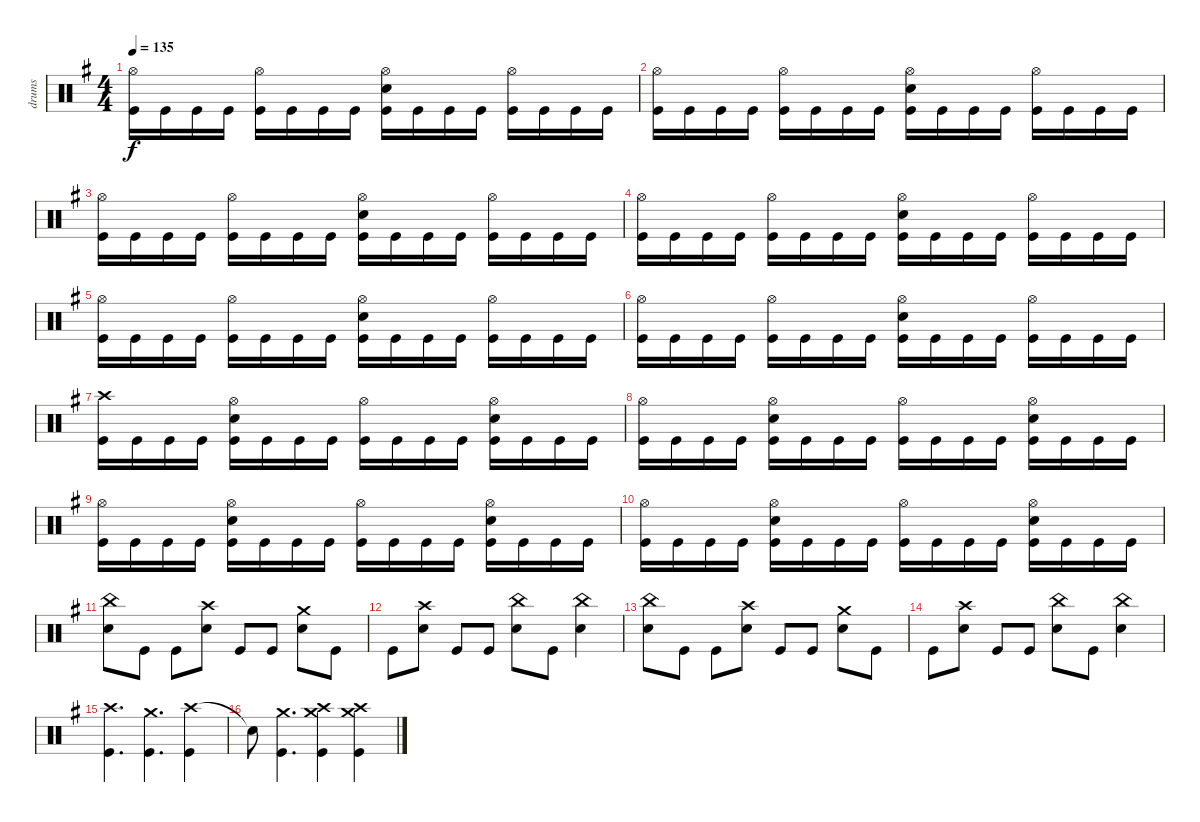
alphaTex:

\track ("drums" "drums") {instrument percussion}
\staff {score}
\articulation defaults
\ts (4 4)
\tempo 135
\clef neutral
\ks eminor
("Hi-Hat (open)" "Kick (hit)").16{dy f} "Kick (hit)".16 "Kick (hit)".16 "Kick (hit)".16 ("Hi-Hat (open)" "Kick (hit)").16 "Kick (hit)".16 "Kick (hit)".16 "Kick (hit)".16 ("Hi-Hat (open)" "Snare (hit) 2" "Kick (hit)").16 "Kick (hit)".16 "Kick (hit)".16 "Kick (hit)".16 ("Hi-Hat (open)" "Kick (hit)").16 "Kick (hit)".16 "Kick (hit)".16 "Kick (hit)".16 |
("Hi-Hat (open)" "Kick (hit)").16 "Kick (hit)".16 "Kick (hit)".16 "Kick (hit)".16 ("Hi-Hat (open)" "Kick (hit)").16 "Kick (hit)".16 "Kick (hit)".16 "Kick (hit)".16 ("Hi-Hat (open)" "Snare (hit) 2" "Kick (hit)").16 "Kick (hit)".16 "Kick (hit)".16 "Kick (hit)".16 ("Hi-Hat (open)" "Kick (hit)").16 "Kick (hit)".16 "Kick (hit)".16 "Kick (hit)".16 |
("Hi-Hat (open)" "Kick (hit)").16 "Kick (hit)".16 "Kick (hit)".16 "Kick (hit)".16 ("Hi-Hat (open)" "Kick (hit)").16 "Kick (hit)".16 "Kick (hit)".16 "Kick (hit)".16 ("Hi-Hat (open)" "Snare (hit) 2" "Kick (hit)").16 "Kick (hit)".16 "Kick (hit)".16 "Kick (hit)".16 ("Hi-Hat (open)" "Kick (hit)").16 "Kick (hit)".16 "Kick (hit)".16 "Kick (hit)".16 |
("Hi-Hat (open)" "Kick (hit)").16 "Kick (hit)".16 "Kick (hit)".16 "Kick (hit)".16 ("Hi-Hat (open)" "Kick (hit)").16 "Kick (hit)".16 "Kick (hit)".16 "Kick (hit)".16 ("Hi-Hat (open)" "Snare (hit) 2" "Kick (hit)").16 "Kick (hit)".16 "Kick (hit)".16 "Kick (hit)".16 ("Hi-Hat (open)" "Kick (hit)").16 "Kick (hit)".16 "Kick (hit)".16 "Kick (hit)".16 |
("Hi-Hat (open)" "Kick (hit)").16 "Kick (hit)".16 "Kick (hit)".16 "Kick (hit)".16 ("Hi-Hat (open)" "Kick (hit)").16 "Kick (hit)".16 "Kick (hit)".16 "Kick (hit)".16 ("Hi-Hat (open)" "Snare (hit) 2" "Kick (hit)").16 "Kick (hit)".16 "Kick (hit)".16 "Kick (hit)".16 ("Hi-Hat (open)" "Kick (hit)").16 "Kick (hit)".16 "Kick (hit)".16 "Kick (hit)".16 |
("Hi-Hat (open)" "Kick (hit)").16 "Kick (hit)".16 "Kick (hit)".16 "Kick (hit)".16 ("Hi-Hat (open)" "Kick (hit)").16 "Kick (hit)".16 "Kick (hit)".16 "Kick (hit)".16 ("Hi-Hat (open)" "Snare (hit) 2" "Kick (hit)").16 "Kick (hit)".16 "Kick (hit)".16 "Kick (hit)".16 ("Hi-Hat (open)" "Kick (hit)").16 "Kick (hit)".16 "Kick (hit)".16 "Kick (hit)".16 |
("Crash high (hit)" "Kick (hit)").16 "Kick (hit)".16 "Kick (hit)".16 "Kick (hit)".16 ("Hi-Hat (open)" "Snare (hit) 2" "Kick (hit)").16 "Kick (hit)".16 "Kick (hit)".16 "Kick (hit)".16 ("Hi-Hat (open)" "Kick (hit)").16 "Kick (hit)".16 "Kick (hit)".16 "Kick (hit)".16 ("Hi-Hat (open)" "Snare (hit) 2" "Kick (hit)").16 "Kick (hit)".16 "Kick (hit)".16 "Kick (hit)".16 |
("Hi-Hat (open)" "Kick (hit)").16 "Kick (hit)".16 "Kick (hit)".16 "Kick (hit)".16 ("Hi-Hat (open)" "Snare (hit) 2" "Kick (hit)").16 "Kick (hit)".16 "Kick (hit)".16 "Kick (hit)".16 ("Hi-Hat (open)" "Kick (hit)").16 "Kick (hit)".16 "Kick (hit)".16 "Kick (hit)".16 ("Hi-Hat (open)" "Snare (hit) 2" "Kick (hit)").16 "Kick (hit)".16 "Kick (hit)".16 "Kick (hit)".16 |
("Hi-Hat (open)" "Kick (hit)").16 "Kick (hit)".16 "Kick (hit)".16 "Kick (hit)".16 ("Hi-Hat (open)" "Snare (hit) 2" "Kick (hit)").16 "Kick (hit)".16 "Kick (hit)".16 "Kick (hit)".16 ("Hi-Hat (open)" "Kick (hit)").16 "Kick (hit)".16 "Kick (hit)".16 "Kick (hit)".16 ("Hi-Hat (open)" "Snare (hit) 2" "Kick (hit)").16 "Kick (hit)".16 "Kick (hit)".16 "Kick (hit)".16 |
("Hi-Hat (open)" "Kick (hit)").16 "Kick (hit)".16 "Kick (hit)".16 "Kick (hit)".16 ("Hi-Hat (open)" "Snare (hit) 2" "Kick (hit)").16 "Kick (hit)".16 "Kick (hit)".16 "Kick (hit)".16 ("Hi-Hat (open)" "Kick (hit)").16 "Kick (hit)".16 "Kick (hit)".16 "Kick (hit)".16 ("Hi-Hat (open)" "Snare (hit) 2" "Kick (hit)").16 "Kick (hit)".16 "Kick (hit)".16 "Kick (hit)".16 |
("China (hit)" "Snare (hit) 2").8 "Kick (hit)".8 "Kick (hit)".8 ("Crash high (hit)" "Snare (hit) 2").8 "Kick (hit)".8 "Kick (hit)".8 ("Crash medium (hit)" "Snare (hit) 2").8 "Kick (hit)".8 |
"Kick (hit)".8 ("Crash high (hit)" "Snare (hit) 2").8 "Kick (hit)".8 "Kick (hit)".8 ("China (hit)" "Snare (hit) 2").8 "Kick (hit)".8 ("China (hit)" "Snare (hit) 2").4 |
("China (hit)" "Snare (hit) 2").8 "Kick (hit)".8 "Kick (hit)".8 ("Crash high (hit)" "Snare (hit) 2").8 "Kick (hit)".8 "Kick (hit)".8 ("Crash medium (hit)" "Snare (hit) 2").8 "Kick (hit)".8 |
"Kick (hit)".8 ("Crash high (hit)" "Snare (hit) 2").8 "Kick (hit)".8 "Kick (hit)".8 ("China (hit)" "Snare (hit) 2").8 "Kick (hit)".8 ("China (hit)" "Snare (hit) 2").4 |
("Crash high (hit)" "Kick (hit)").4{d} ("Crash medium (hit)" "Kick (hit)").4{d} ("Crash high (hit)" "Kick (hit)").4 |
"Snare (hit) 2"{t}.8 ("Crash medium (hit)" "Kick (hit)").4{d} ("Crash high (hit)" "Crash medium (hit)" "Kick (hit)").4 ("Crash high (hit)" "Crash medium (hit)" "Kick (hit)").4
